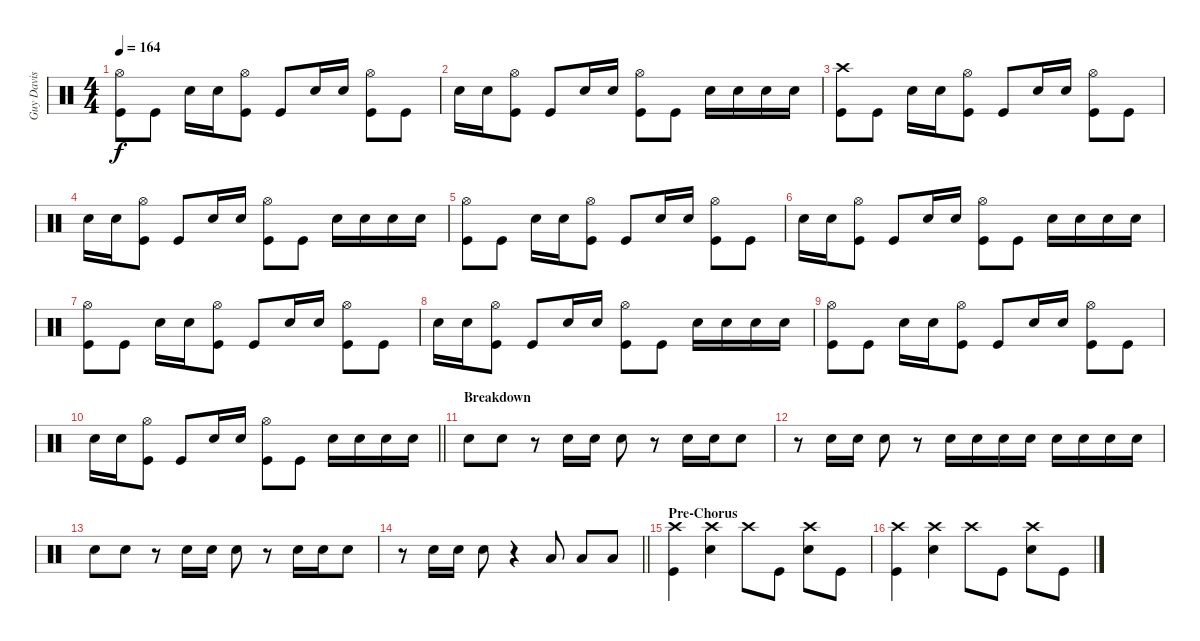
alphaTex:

\track ("Guy Davis" "Guy Davis") {instrument percussion}
\staff {score}
\articulation defaults
\ts (4 4)
\tempo 164
\clef neutral
\ks c
("Hi-Hat (open)" "Kick (hit)").8{dy f} "Kick (hit)".8 "Snare (hit) 2".16 "Snare (hit) 2".16 ("Hi-Hat (open)" "Kick (hit)").8 "Kick (hit)".8 "Snare (hit) 2".16 "Snare (hit) 2".16 ("Hi-Hat (open)" "Kick (hit)").8 "Kick (hit)".8 |
"Snare (hit) 2".16 "Snare (hit) 2".16 ("Hi-Hat (open)" "Kick (hit)").8 "Kick (hit)".8 "Snare (hit) 2".16 "Snare (hit) 2".16 ("Hi-Hat (open)" "Kick (hit)").8 "Kick (hit)".8 "Snare (hit) 2".16 "Snare (hit) 2".16 "Snare (hit) 2".16 "Snare (hit) 2".16 |
("Crash high (hit)" "Kick (hit)").8 "Kick (hit)".8 "Snare (hit) 2".16 "Snare (hit) 2".16 ("Hi-Hat (open)" "Kick (hit)").8 "Kick (hit)".8 "Snare (hit) 2".16 "Snare (hit) 2".16 ("Hi-Hat (open)" "Kick (hit)").8 "Kick (hit)".8 |
"Snare (hit) 2".16 "Snare (hit) 2".16 ("Hi-Hat (open)" "Kick (hit)").8 "Kick (hit)".8 "Snare (hit) 2".16 "Snare (hit) 2".16 ("Hi-Hat (open)" "Kick (hit)").8 "Kick (hit)".8 "Snare (hit) 2".16 "Snare (hit) 2".16 "Snare (hit) 2".16 "Snare (hit) 2".16 |
("Hi-Hat (open)" "Kick (hit)").8 "Kick (hit)".8 "Snare (hit) 2".16 "Snare (hit) 2".16 ("Hi-Hat (open)" "Kick (hit)").8 "Kick (hit)".8 "Snare (hit) 2".16 "Snare (hit) 2".16 ("Hi-Hat (open)" "Kick (hit)").8 "Kick (hit)".8 |
"Snare (hit) 2".16 "Snare (hit) 2".16 ("Hi-Hat (open)" "Kick (hit)").8 "Kick (hit)".8 "Snare (hit) 2".16 "Snare (hit) 2".16 ("Hi-Hat (open)" "Kick (hit)").8 "Kick (hit)".8 "Snare (hit) 2".16 "Snare (hit) 2".16 "Snare (hit) 2".16 "Snare (hit) 2".16 |
("Hi-Hat (open)" "Kick (hit)").8 "Kick (hit)".8 "Snare (hit) 2".16 "Snare (hit) 2".16 ("Hi-Hat (open)" "Kick (hit)").8 "Kick (hit)".8 "Snare (hit) 2".16 "Snare (hit) 2".16 ("Hi-Hat (open)" "Kick (hit)").8 "Kick (hit)".8 |
"Snare (hit) 2".16 "Snare (hit) 2".16 ("Hi-Hat (open)" "Kick (hit)").8 "Kick (hit)".8 "Snare (hit) 2".16 "Snare (hit) 2".16 ("Hi-Hat (open)" "Kick (hit)").8 "Kick (hit)".8 "Snare (hit) 2".16 "Snare (hit) 2".16 "Snare (hit) 2".16 "Snare (hit) 2".16 |
("Hi-Hat (open)" "Kick (hit)").8 "Kick (hit)".8 "Snare (hit) 2".16 "Snare (hit) 2".16 ("Hi-Hat (open)" "Kick (hit)").8 "Kick (hit)".8 "Snare (hit) 2".16 "Snare (hit) 2".16 ("Hi-Hat (open)" "Kick (hit)").8 "Kick (hit)".8 |
\barLineRight lightlight "Snare (hit) 2".16 "Snare (hit) 2".16
("Hi-Hat (open)" "Kick (hit)").8 "Kick (hit)".8 "Snare (hit) 2".16 "Snare (hit) 2".16 ("Hi-Hat (open)" "Kick (hit)").8 "Kick (hit)".8 "Snare (hit) 2".16 "Snare (hit) 2".16 "Snare (hit) 2".16 "Snare (hit) 2".16 |
\section ("" "Breakdown")
"Snare (hit) 2".8 "Snare (hit) 2".8 r.8 "Snare (hit) 2".16 "Snare (hit) 2".16 "Snare (hit) 2".8 r.8 "Snare (hit) 2".16 "Snare (hit) 2".16 "Snare (hit) 2".8 |
r.8 "Snare (hit) 2".16 "Snare (hit) 2".16 "Snare (hit) 2".8 r.8 "Snare (hit) 2".16 "Snare (hit) 2".16 "Snare (hit) 2".16 "Snare (hit) 2".16 "Snare (hit) 2".16 "Snare (hit) 2".16 "Snare (hit) 2".16 "Snare (hit) 2".16 |
"Snare (hit) 2".8 "Snare (hit) 2".8 r.8 "Snare (hit) 2".16 "Snare (hit) 2".16 "Snare (hit) 2".8 r.8 "Snare (hit) 2".16 "Snare (hit) 2".16 "Snare (hit) 2".8 |
\barLineRight lightlight
r.8 "Snare (hit) 2".16 "Snare (hit) 2".16 "Snare (hit) 2".8 r.4 "Low Tom (hit)".8 "Low Tom (hit)".8 "Low Tom (hit)".8 |
\section ("" "Pre-Chorus")
("Crash high (hit)" "Kick (hit)").4 ("Snare (hit) 2" "Crash high (hit)").4 "Crash high (hit)".8 "Kick (hit)".8 ("Snare (hit) 2" "Crash high (hit)").8 "Kick (hit)".8 |
("Crash high (hit)" "Kick (hit)").4 ("Snare (hit) 2" "Crash high (hit)").4 "Crash high (hit)".8 "Kick (hit)".8 ("Snare (hit) 2" "Crash high (hit)").8 "Kick (hit)".8
